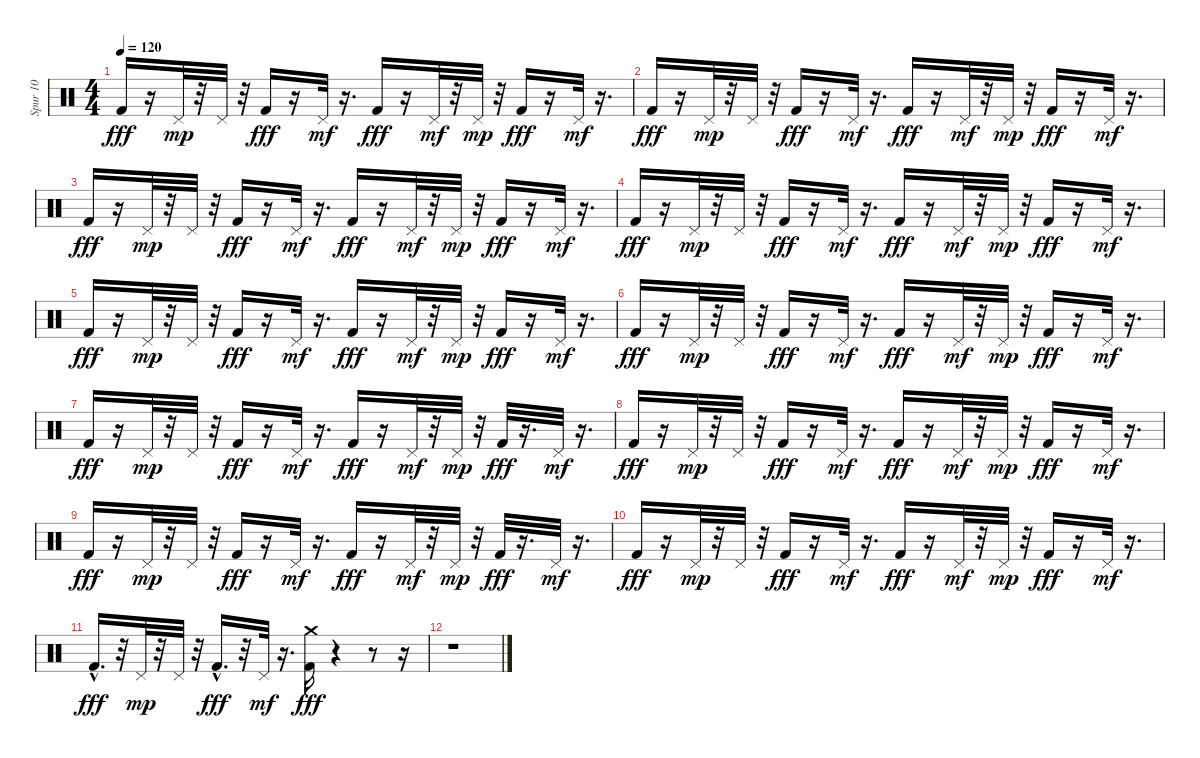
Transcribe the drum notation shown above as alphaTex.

\track ("Spur 10" "Spur 10") {instrument percussion}
\staff {score}
\articulation defaults
\ts (4 4)
\tempo 120
\clef neutral
\ks c "Kick (hit) 2".16{dy fff}
r.16 "Pedal Hi-Hat (hit)".32{dy mp} r.32 "Pedal Hi-Hat (hit)".32 r.32 "Kick (hit) 2".16{dy fff} r.16 "Pedal Hi-Hat (hit)".32{dy mf} r.16{d} "Kick (hit) 2".16{dy fff} r.16 "Pedal Hi-Hat (hit)".32{dy mf} r.32 "Pedal Hi-Hat (hit)".32{dy mp} r.32 "Kick (hit) 2".16{dy fff} r.16 "Pedal Hi-Hat (hit)".32{dy mf} r.16{d} |
"Kick (hit) 2".16{dy fff} r.16 "Pedal Hi-Hat (hit)".32{dy mp} r.32 "Pedal Hi-Hat (hit)".32 r.32 "Kick (hit) 2".16{dy fff} r.16 "Pedal Hi-Hat (hit)".32{dy mf} r.16{d} "Kick (hit) 2".16{dy fff} r.16 "Pedal Hi-Hat (hit)".32{dy mf} r.32 "Pedal Hi-Hat (hit)".32{dy mp} r.32 "Kick (hit) 2".16{dy fff} r.16 "Pedal Hi-Hat (hit)".32{dy mf} r.16{d} |
"Kick (hit) 2".16{dy fff} r.16 "Pedal Hi-Hat (hit)".32{dy mp} r.32 "Pedal Hi-Hat (hit)".32 r.32 "Kick (hit) 2".16{dy fff} r.16 "Pedal Hi-Hat (hit)".32{dy mf} r.16{d} "Kick (hit) 2".16{dy fff} r.16 "Pedal Hi-Hat (hit)".32{dy mf} r.32 "Pedal Hi-Hat (hit)".32{dy mp} r.32 "Kick (hit) 2".16{dy fff} r.16 "Pedal Hi-Hat (hit)".32{dy mf} r.16{d} |
"Kick (hit) 2".16{dy fff} r.16 "Pedal Hi-Hat (hit)".32{dy mp} r.32 "Pedal Hi-Hat (hit)".32 r.32 "Kick (hit) 2".16{dy fff} r.16 "Pedal Hi-Hat (hit)".32{dy mf} r.16{d} "Kick (hit) 2".16{dy fff} r.16 "Pedal Hi-Hat (hit)".32{dy mf} r.32 "Pedal Hi-Hat (hit)".32{dy mp} r.32 "Kick (hit) 2".16{dy fff} r.16 "Pedal Hi-Hat (hit)".32{dy mf} r.16{d} |
"Kick (hit) 2".16{dy fff} r.16 "Pedal Hi-Hat (hit)".32{dy mp} r.32 "Pedal Hi-Hat (hit)".32 r.32 "Kick (hit) 2".16{dy fff} r.16 "Pedal Hi-Hat (hit)".32{dy mf} r.16{d} "Kick (hit) 2".16{dy fff} r.16 "Pedal Hi-Hat (hit)".32{dy mf} r.32 "Pedal Hi-Hat (hit)".32{dy mp} r.32 "Kick (hit) 2".16{dy fff} r.16 "Pedal Hi-Hat (hit)".32{dy mf} r.16{d} |
"Kick (hit) 2".16{dy fff} r.16 "Pedal Hi-Hat (hit)".32{dy mp} r.32 "Pedal Hi-Hat (hit)".32 r.32 "Kick (hit) 2".16{dy fff} r.16 "Pedal Hi-Hat (hit)".32{dy mf} r.16{d} "Kick (hit) 2".16{dy fff} r.16 "Pedal Hi-Hat (hit)".32{dy mf} r.32 "Pedal Hi-Hat (hit)".32{dy mp} r.32 "Kick (hit) 2".16{dy fff} r.16 "Pedal Hi-Hat (hit)".32{dy mf} r.16{d} |
"Kick (hit) 2".16{dy fff} r.16 "Pedal Hi-Hat (hit)".32{dy mp} r.32 "Pedal Hi-Hat (hit)".32 r.32 "Kick (hit) 2".16{dy fff} r.16 "Pedal Hi-Hat (hit)".32{dy mf} r.16{d} "Kick (hit) 2".16{dy fff} r.16 "Pedal Hi-Hat (hit)".32{dy mf} r.32 "Pedal Hi-Hat (hit)".32{dy mp} r.32 "Kick (hit) 2".32{dy fff} r.16{d} "Pedal Hi-Hat (hit)".32{dy mf} r.16{d} |
"Kick (hit) 2".16{dy fff} r.16 "Pedal Hi-Hat (hit)".32{dy mp} r.32 "Pedal Hi-Hat (hit)".32 r.32 "Kick (hit) 2".16{dy fff} r.16 "Pedal Hi-Hat (hit)".32{dy mf} r.16{d} "Kick (hit) 2".16{dy fff} r.16 "Pedal Hi-Hat (hit)".32{dy mf} r.32 "Pedal Hi-Hat (hit)".32{dy mp} r.32 "Kick (hit) 2".16{dy fff} r.16 "Pedal Hi-Hat (hit)".32{dy mf} r.16{d} |
"Kick (hit) 2".16{dy fff} r.16 "Pedal Hi-Hat (hit)".32{dy mp} r.32 "Pedal Hi-Hat (hit)".32 r.32 "Kick (hit) 2".16{dy fff} r.16 "Pedal Hi-Hat (hit)".32{dy mf} r.16{d} "Kick (hit) 2".16{dy fff} r.16 "Pedal Hi-Hat (hit)".32{dy mf} r.32 "Pedal Hi-Hat (hit)".32{dy mp} r.32 "Kick (hit) 2".32{dy fff} r.16{d} "Pedal Hi-Hat (hit)".32{dy mf} r.16{d} |
"Kick (hit) 2".16{dy fff} r.16 "Pedal Hi-Hat (hit)".32{dy mp} r.32 "Pedal Hi-Hat (hit)".32 r.32 "Kick (hit) 2".16{dy fff} r.16 "Pedal Hi-Hat (hit)".32{dy mf} r.16{d} "Kick (hit) 2".16{dy fff} r.16 "Pedal Hi-Hat (hit)".32{dy mf} r.32 "Pedal Hi-Hat (hit)".32{dy mp} r.32 "Kick (hit) 2".16{dy fff} r.16 "Pedal Hi-Hat (hit)".32{dy mf} r.16{d} |
"Kick (hit) 2"{hac}.16{d dy fff} r.32 "Pedal Hi-Hat (hit)".32{dy mp} r.32 "Pedal Hi-Hat (hit)".32 r.32 "Kick (hit) 2"{hac}.16{d dy fff} r.32 "Pedal Hi-Hat (hit)".32{dy mf} r.16{d} ("Kick (hit) 2" "Crash medium (hit)").16{dy fff} r.4 r.8 r.16 |
r.1
